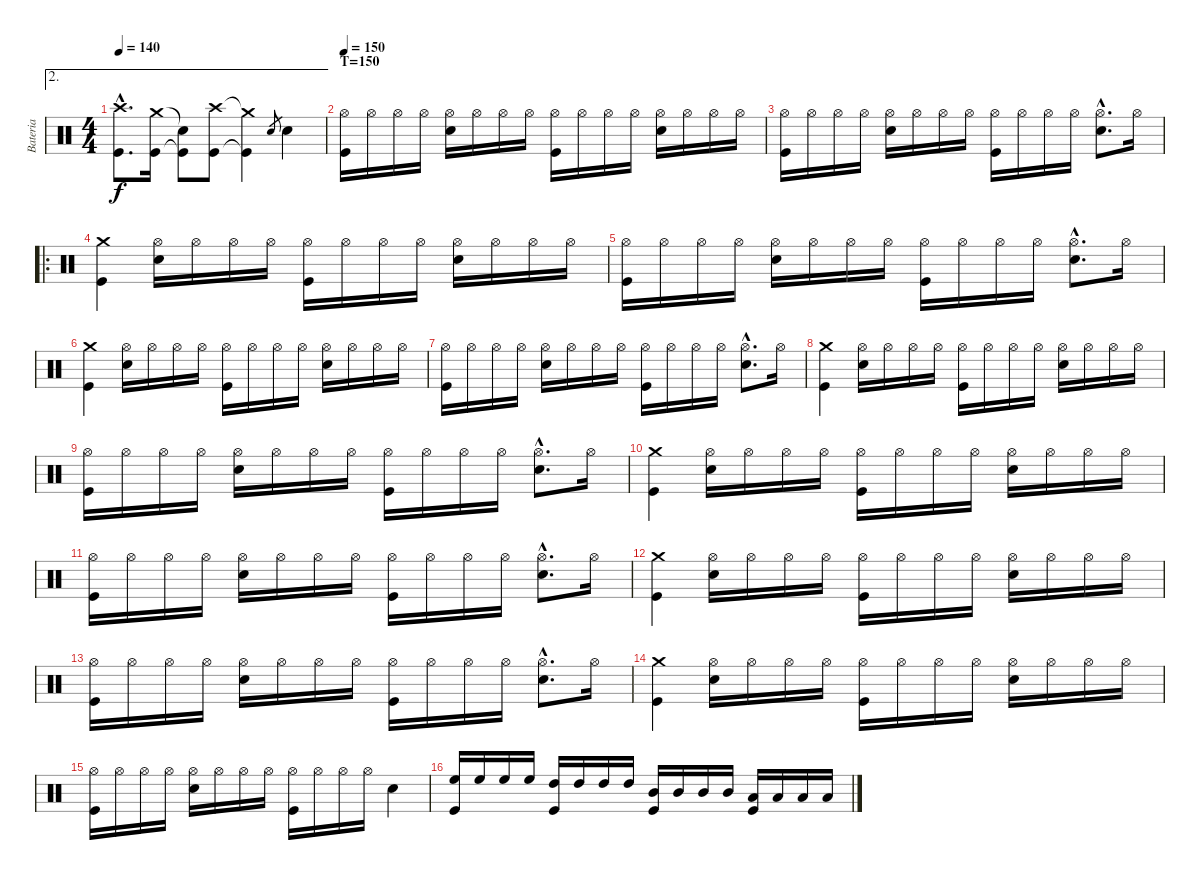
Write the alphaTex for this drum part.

\track ("Bateria" "Bateria") {instrument percussion}
\staff {score}
\articulation defaults
\ae 2
\ts (4 4)
\tempo 140
\clef neutral
\ks c
("Crash high (hit)"{hac} "Kick (hit)"{hac}).8{d dy f} ("Crash medium (hit)" "Kick (hit)").16 ("Snare (hit)"{t} "Kick (hit)"{t}).8 ("Crash high (hit)" "Kick (hit)").8 ("Crash medium (hit)"{t} "Kick (hit)"{t}).4 "Snare (hit) 2".8{gr} "Snare (hit) 2".4 |
\section ("" "T=150")
\tempo 150
("Hi-Hat (open)" "Kick (hit)").16 "Hi-Hat (open)".16 "Hi-Hat (open)".16 "Hi-Hat (open)".16 ("Hi-Hat (open)" "Snare (hit) 2").16 "Hi-Hat (open)".16 "Hi-Hat (open)".16 "Hi-Hat (open)".16 ("Hi-Hat (open)" "Kick (hit)").16 "Hi-Hat (open)".16 "Hi-Hat (open)".16 "Hi-Hat (open)".16 ("Hi-Hat (open)" "Snare (hit) 2").16 "Hi-Hat (open)".16 "Hi-Hat (open)".16 "Hi-Hat (open)".16 |
("Hi-Hat (open)" "Kick (hit)").16 "Hi-Hat (open)".16 "Hi-Hat (open)".16 "Hi-Hat (open)".16 ("Hi-Hat (open)" "Snare (hit) 2").16 "Hi-Hat (open)".16 "Hi-Hat (open)".16 "Hi-Hat (open)".16 ("Hi-Hat (open)" "Kick (hit)").16 "Hi-Hat (open)".16 "Hi-Hat (open)".16 "Hi-Hat (open)".16 ("Hi-Hat (open)"{hac} "Snare (hit) 2"{hac}).8{d} "Hi-Hat (open)".16 |
\ro
("Crash medium (hit)" "Kick (hit)").4 ("Hi-Hat (open)" "Snare (hit) 2").16 "Hi-Hat (open)".16 "Hi-Hat (open)".16 "Hi-Hat (open)".16 ("Hi-Hat (open)" "Kick (hit)").16 "Hi-Hat (open)".16 "Hi-Hat (open)".16 "Hi-Hat (open)".16 ("Hi-Hat (open)" "Snare (hit) 2").16 "Hi-Hat (open)".16 "Hi-Hat (open)".16 "Hi-Hat (open)".16 |
("Hi-Hat (open)" "Kick (hit)").16 "Hi-Hat (open)".16 "Hi-Hat (open)".16 "Hi-Hat (open)".16 ("Hi-Hat (open)" "Snare (hit) 2").16 "Hi-Hat (open)".16 "Hi-Hat (open)".16 "Hi-Hat (open)".16 ("Hi-Hat (open)" "Kick (hit)").16 "Hi-Hat (open)".16 "Hi-Hat (open)".16 "Hi-Hat (open)".16 ("Hi-Hat (open)"{hac} "Snare (hit) 2"{hac}).8{d} "Hi-Hat (open)".16 |
("Crash medium (hit)" "Kick (hit)").4 ("Hi-Hat (open)" "Snare (hit) 2").16 "Hi-Hat (open)".16 "Hi-Hat (open)".16 "Hi-Hat (open)".16 ("Hi-Hat (open)" "Kick (hit)").16 "Hi-Hat (open)".16 "Hi-Hat (open)".16 "Hi-Hat (open)".16 ("Hi-Hat (open)" "Snare (hit) 2").16 "Hi-Hat (open)".16 "Hi-Hat (open)".16 "Hi-Hat (open)".16 |
("Hi-Hat (open)" "Kick (hit)").16 "Hi-Hat (open)".16 "Hi-Hat (open)".16 "Hi-Hat (open)".16 ("Hi-Hat (open)" "Snare (hit) 2").16 "Hi-Hat (open)".16 "Hi-Hat (open)".16 "Hi-Hat (open)".16 ("Hi-Hat (open)" "Kick (hit)").16 "Hi-Hat (open)".16 "Hi-Hat (open)".16 "Hi-Hat (open)".16 ("Hi-Hat (open)"{hac} "Snare (hit) 2"{hac}).8{d} "Hi-Hat (open)".16 |
("Crash medium (hit)" "Kick (hit)").4 ("Hi-Hat (open)" "Snare (hit) 2").16 "Hi-Hat (open)".16 "Hi-Hat (open)".16 "Hi-Hat (open)".16 ("Hi-Hat (open)" "Kick (hit)").16 "Hi-Hat (open)".16 "Hi-Hat (open)".16 "Hi-Hat (open)".16 ("Hi-Hat (open)" "Snare (hit) 2").16 "Hi-Hat (open)".16 "Hi-Hat (open)".16 "Hi-Hat (open)".16 |
("Hi-Hat (open)" "Kick (hit)").16 "Hi-Hat (open)".16 "Hi-Hat (open)".16 "Hi-Hat (open)".16 ("Hi-Hat (open)" "Snare (hit) 2").16 "Hi-Hat (open)".16 "Hi-Hat (open)".16 "Hi-Hat (open)".16 ("Hi-Hat (open)" "Kick (hit)").16 "Hi-Hat (open)".16 "Hi-Hat (open)".16 "Hi-Hat (open)".16 ("Hi-Hat (open)"{hac} "Snare (hit) 2"{hac}).8{d} "Hi-Hat (open)".16 |
("Crash medium (hit)" "Kick (hit)").4 ("Hi-Hat (open)" "Snare (hit) 2").16 "Hi-Hat (open)".16 "Hi-Hat (open)".16 "Hi-Hat (open)".16 ("Hi-Hat (open)" "Kick (hit)").16 "Hi-Hat (open)".16 "Hi-Hat (open)".16 "Hi-Hat (open)".16 ("Hi-Hat (open)" "Snare (hit) 2").16 "Hi-Hat (open)".16 "Hi-Hat (open)".16 "Hi-Hat (open)".16 |
("Hi-Hat (open)" "Kick (hit)").16 "Hi-Hat (open)".16 "Hi-Hat (open)".16 "Hi-Hat (open)".16 ("Hi-Hat (open)" "Snare (hit) 2").16 "Hi-Hat (open)".16 "Hi-Hat (open)".16 "Hi-Hat (open)".16 ("Hi-Hat (open)" "Kick (hit)").16 "Hi-Hat (open)".16 "Hi-Hat (open)".16 "Hi-Hat (open)".16 ("Hi-Hat (open)"{hac} "Snare (hit) 2"{hac}).8{d} "Hi-Hat (open)".16 |
("Crash medium (hit)" "Kick (hit)").4 ("Hi-Hat (open)" "Snare (hit) 2").16 "Hi-Hat (open)".16 "Hi-Hat (open)".16 "Hi-Hat (open)".16 ("Hi-Hat (open)" "Kick (hit)").16 "Hi-Hat (open)".16 "Hi-Hat (open)".16 "Hi-Hat (open)".16 ("Hi-Hat (open)" "Snare (hit) 2").16 "Hi-Hat (open)".16 "Hi-Hat (open)".16 "Hi-Hat (open)".16 |
("Hi-Hat (open)" "Kick (hit)").16 "Hi-Hat (open)".16 "Hi-Hat (open)".16 "Hi-Hat (open)".16 ("Hi-Hat (open)" "Snare (hit) 2").16 "Hi-Hat (open)".16 "Hi-Hat (open)".16 "Hi-Hat (open)".16 ("Hi-Hat (open)" "Kick (hit)").16 "Hi-Hat (open)".16 "Hi-Hat (open)".16 "Hi-Hat (open)".16 ("Hi-Hat (open)"{hac} "Snare (hit) 2"{hac}).8{d} "Hi-Hat (open)".16 |
("Crash medium (hit)" "Kick (hit)").4 ("Hi-Hat (open)" "Snare (hit) 2").16 "Hi-Hat (open)".16 "Hi-Hat (open)".16 "Hi-Hat (open)".16 ("Hi-Hat (open)" "Kick (hit)").16 "Hi-Hat (open)".16 "Hi-Hat (open)".16 "Hi-Hat (open)".16 ("Hi-Hat (open)" "Snare (hit) 2").16 "Hi-Hat (open)".16 "Hi-Hat (open)".16 "Hi-Hat (open)".16 |
("Hi-Hat (open)" "Kick (hit)").16 "Hi-Hat (open)".16 "Hi-Hat (open)".16 "Hi-Hat (open)".16 ("Hi-Hat (open)" "Snare (hit) 2").16 "Hi-Hat (open)".16 "Hi-Hat (open)".16 "Hi-Hat (open)".16 ("Hi-Hat (open)" "Kick (hit)").16 "Hi-Hat (open)".16 "Hi-Hat (open)".16 "Hi-Hat (open)".16 "Snare (hit) 2".4 |
("High Floor Tom (hit)" "Kick (hit)").16 "High Floor Tom (hit)".16 "High Floor Tom (hit)".16 "High Floor Tom (hit)".16 ("High Tom (hit)" "Kick (hit)").16 "High Tom (hit)".16 "High Tom (hit)".16 "High Tom (hit)".16 ("Mid Tom (hit)" "Kick (hit)").16 "Mid Tom (hit)".16 "Mid Tom (hit)".16 "Mid Tom (hit)".16 ("Low Tom (hit)" "Kick (hit)").16 "Low Tom (hit)".16 "Low Tom (hit)".16 "Low Tom (hit)".16
